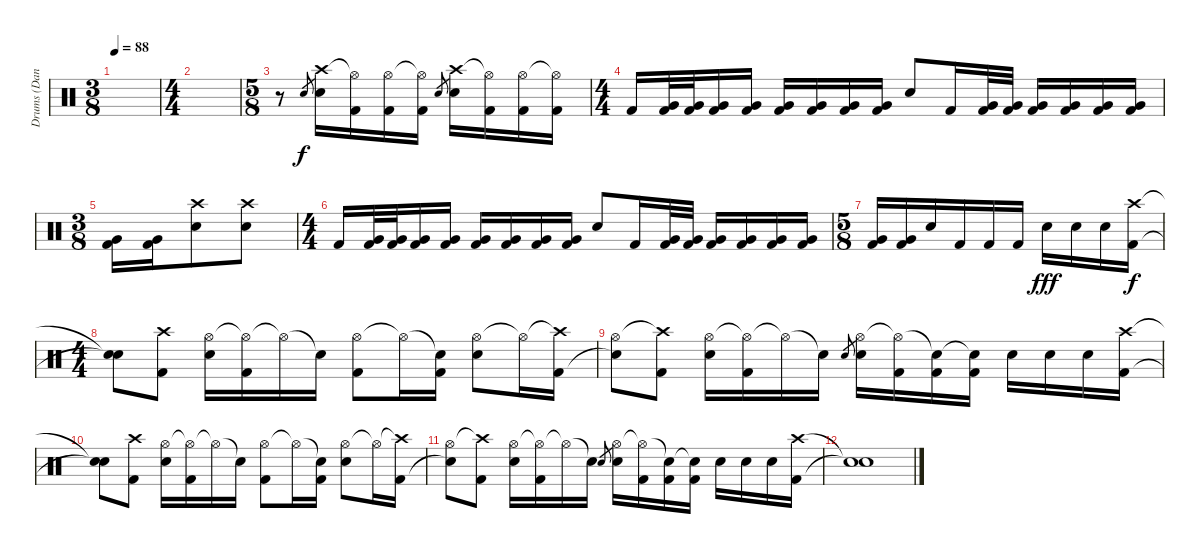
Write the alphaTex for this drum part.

\track ("Drums (Daniel)" "Drums (Dan") {instrument percussion}
\staff {score}
\articulation defaults
\ts (3 8)
\tempo 88
\clef neutral
\ks c
|
\ts (4 4)
|
\ts (5 8)
r.8 "Electric Snare (hit)".8{gr} ("Crash high (hit)" "Electric Snare (hit)").16 ("Hi-Hat (open)"{t} "Kick (hit) 2").16 ("Hi-Hat (open)" "Kick (hit) 2").16 ("Hi-Hat (open)"{t} "Kick (hit) 2").16 "Electric Snare (hit)".8{gr} ("Crash high (hit)" "Electric Snare (hit)").16 ("Hi-Hat (open)"{t} "Kick (hit) 2").16 ("Hi-Hat (open)" "Kick (hit) 2").16 ("Hi-Hat (open)"{t} "Kick (hit) 2").16 |
\ts (4 4)
"Kick (hit) 2".16 ("Very Low Tom (hit)" "Kick (hit) 2").32 ("Very Low Tom (hit)" "Kick (hit) 2").32 ("Very Low Tom (hit)" "Kick (hit) 2").16 ("Very Low Tom (hit)" "Kick (hit) 2").16 ("Very Low Tom (hit)" "Kick (hit) 2").16 ("Very Low Tom (hit)" "Kick (hit) 2").16 ("Very Low Tom (hit)" "Kick (hit) 2").16 ("Very Low Tom (hit)" "Kick (hit) 2").16 "Electric Snare (hit)".8 "Kick (hit) 2".16 ("Very Low Tom (hit)" "Kick (hit) 2").32 ("Very Low Tom (hit)" "Kick (hit) 2").32 ("Very Low Tom (hit)" "Kick (hit) 2").16 ("Very Low Tom (hit)" "Kick (hit) 2").16 ("Very Low Tom (hit)" "Kick (hit) 2").16 ("Very Low Tom (hit)" "Kick (hit) 2").16 |
\ts (3 8)
("Very Low Tom (hit)" "Kick (hit) 2").16 ("Very Low Tom (hit)" "Kick (hit) 2").16 ("Crash high (hit)" "Electric Snare (hit)").8 ("Crash high (hit)" "Electric Snare (hit)").8 |
\ts (4 4)
"Kick (hit) 2".16 ("Very Low Tom (hit)" "Kick (hit) 2").32 ("Very Low Tom (hit)" "Kick (hit) 2").32 ("Very Low Tom (hit)" "Kick (hit) 2").16 ("Very Low Tom (hit)" "Kick (hit) 2").16 ("Very Low Tom (hit)" "Kick (hit) 2").16 ("Very Low Tom (hit)" "Kick (hit) 2").16 ("Very Low Tom (hit)" "Kick (hit) 2").16 ("Very Low Tom (hit)" "Kick (hit) 2").16 "Electric Snare (hit)".8 "Kick (hit) 2".16 ("Very Low Tom (hit)" "Kick (hit) 2").32 ("Very Low Tom (hit)" "Kick (hit) 2").32 ("Very Low Tom (hit)" "Kick (hit) 2").16 ("Very Low Tom (hit)" "Kick (hit) 2").16 ("Very Low Tom (hit)" "Kick (hit) 2").16 ("Very Low Tom (hit)" "Kick (hit) 2").16 |
\ts (5 8)
("Very Low Tom (hit)" "Kick (hit) 2").16 ("Very Low Tom (hit)" "Kick (hit) 2").16 "Electric Snare (hit)".16 "Kick (hit) 2".16 "Kick (hit) 2".16 "Kick (hit) 2".16 "Electric Snare (hit)".16{dy fff} "Electric Snare (hit)".16 "Electric Snare (hit)".16 ("Crash high (hit)" "Kick (hit) 2").16{dy f} |
\ts (4 4)
("Snare (hit)"{t} "Snare (hit)"{t}).8 ("Crash high (hit)" "Kick (hit) 2").8 ("Hi-Hat (open)" "Electric Snare (hit)").16 ("Hi-Hat (open)"{t} "Kick (hit) 2").16 "Hi-Hat (open)"{t}.16 "Snare (hit)"{t}.16 ("Hi-Hat (open)" "Kick (hit) 2").8 "Hi-Hat (open)"{t}.16 ("Snare (hit)"{t} "Kick (hit) 2").16 ("Hi-Hat (open)" "Electric Snare (hit)").8 "Hi-Hat (open)"{t}.16 ("Crash high (hit)"{t} "Kick (hit) 2").16 |
("Hi-Hat (open)" "Snare (hit)"{t}).8 ("Crash high (hit)"{t} "Kick (hit) 2").8 ("Hi-Hat (open)" "Electric Snare (hit)").16 ("Hi-Hat (open)"{t} "Kick (hit) 2").16 "Hi-Hat (open)"{t}.16 "Snare (hit)"{t}.16 "Electric Snare (hit)".8{gr} ("Hi-Hat (open)" "Electric Snare (hit)").16 ("Hi-Hat (open)"{t} "Kick (hit) 2").16 ("Snare (hit)"{t} "Kick (hit) 2").16 ("Snare (hit)"{t} "Kick (hit) 2").16 "Electric Snare (hit)".16 "Electric Snare (hit)".16 "Electric Snare (hit)".16 ("Crash high (hit)" "Kick (hit) 2").16 |
("Snare (hit)"{t} "Snare (hit)"{t}).8 ("Crash high (hit)" "Kick (hit) 2").8 ("Hi-Hat (open)" "Electric Snare (hit)").16 ("Hi-Hat (open)"{t} "Kick (hit) 2").16 "Hi-Hat (open)"{t}.16 "Snare (hit)"{t}.16 ("Hi-Hat (open)" "Kick (hit) 2").8 "Hi-Hat (open)"{t}.16 ("Snare (hit)"{t} "Kick (hit) 2").16 ("Hi-Hat (open)" "Electric Snare (hit)").8 "Hi-Hat (open)"{t}.16 ("Crash high (hit)"{t} "Kick (hit) 2").16 |
("Hi-Hat (open)" "Snare (hit)"{t}).8 ("Crash high (hit)"{t} "Kick (hit) 2").8 ("Hi-Hat (open)" "Electric Snare (hit)").16 ("Hi-Hat (open)"{t} "Kick (hit) 2").16 "Hi-Hat (open)"{t}.16 "Snare (hit)"{t}.16 "Electric Snare (hit)".8{gr} ("Hi-Hat (open)" "Electric Snare (hit)").16 ("Hi-Hat (open)"{t} "Kick (hit) 2").16 ("Snare (hit)"{t} "Kick (hit) 2").16 ("Snare (hit)"{t} "Kick (hit) 2").16 "Electric Snare (hit)".16 "Electric Snare (hit)".16 "Electric Snare (hit)".16 ("Crash high (hit)" "Kick (hit) 2").16 |
("Snare (hit)"{t} "Snare (hit)"{t}).1
